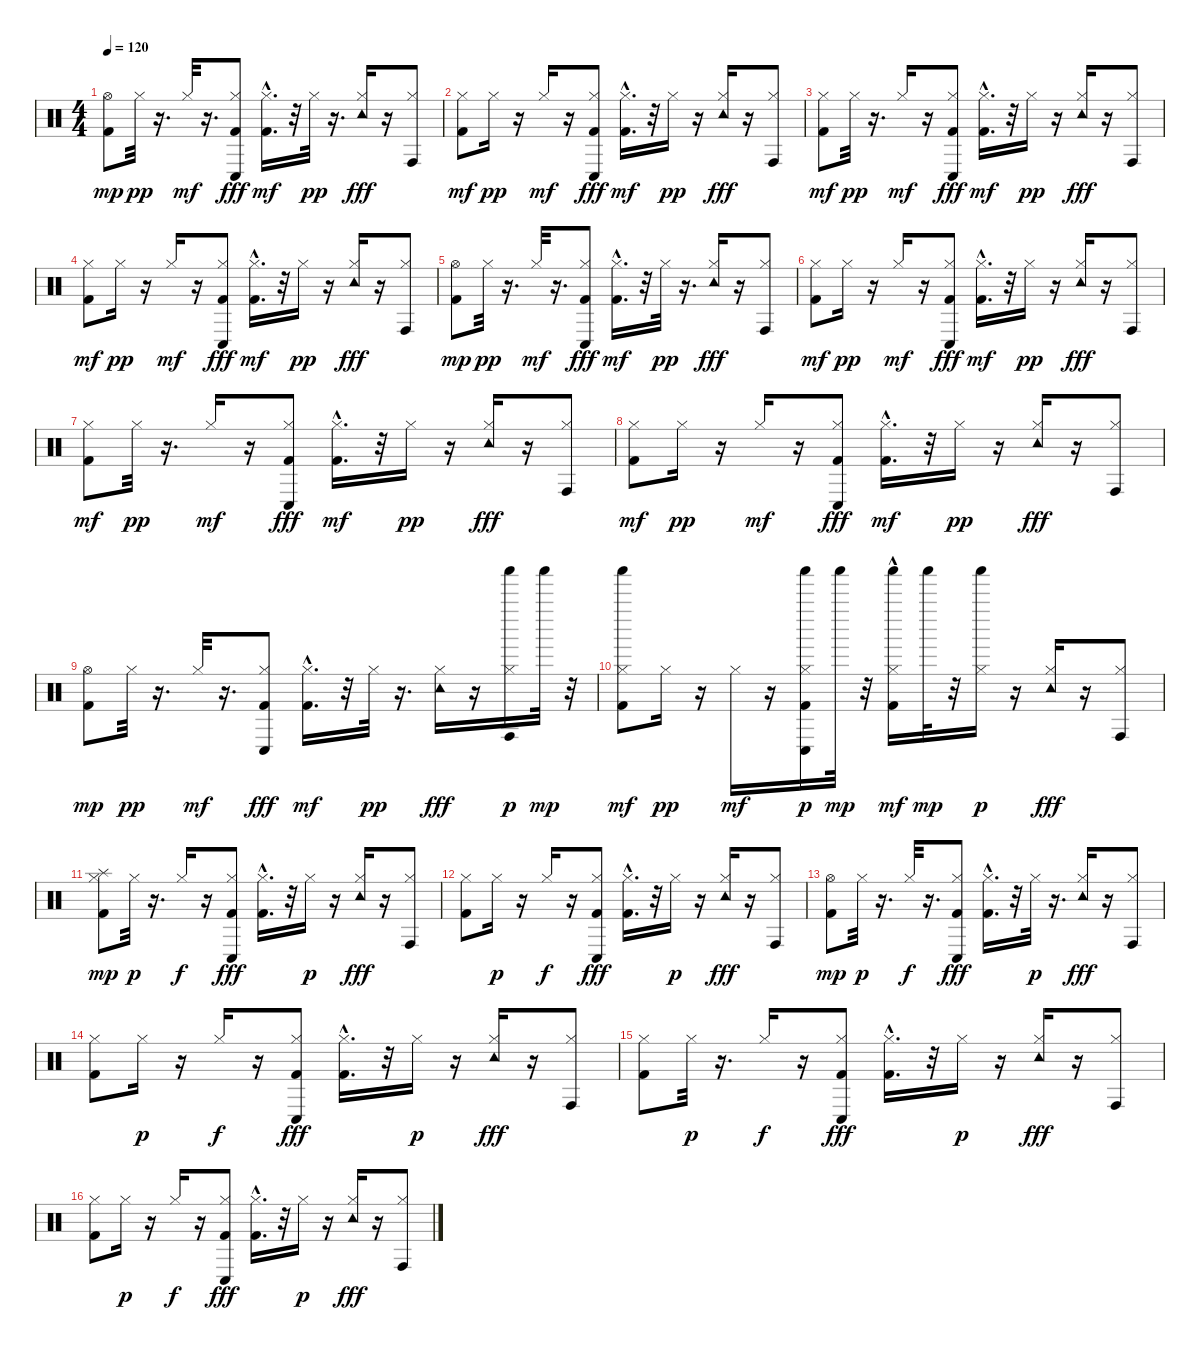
\track "" {instrument percussion}
\staff {score}
\articulation defaults
\ts (4 4)
\tempo 120
\clef neutral
\ks c
("Kick (hit) 2" "Hi-Hat (open)").8{dy mp} "Hi-Hat (closed)".32{dy pp} r.16{d} "Hi-Hat (closed)".32{dy mf} r.16{d} ("Kick (hit) 2" "Hi-Hat (closed)" "Conga low (hit)").8{dy fff} ("Kick (hit) 2"{hac} "Hi-Hat (closed)").16{d dy mf} r.32 "Hi-Hat (closed)".32{dy pp} r.16{d} ("Hi-Hat (closed)" "Tambourine (hit)").16{dy fff} r.16 ("Hi-Hat (closed)" "Conga high (hit)").8 |
("Kick (hit) 2" "Hi-Hat (closed)").8{dy mf} "Hi-Hat (closed)".16{dy pp} r.16 "Hi-Hat (closed)".16{dy mf} r.16 ("Kick (hit) 2" "Hi-Hat (closed)" "Conga low (hit)").8{dy fff} ("Kick (hit) 2"{hac} "Hi-Hat (closed)").16{d dy mf} r.32 "Hi-Hat (closed)".16{dy pp} r.16 ("Hi-Hat (closed)" "Tambourine (hit)").16{dy fff} r.16 ("Hi-Hat (closed)" "Conga high (hit)").8 |
("Kick (hit) 2" "Hi-Hat (closed)").8{dy mf} "Hi-Hat (closed)".32{dy pp} r.16{d} "Hi-Hat (closed)".16{dy mf} r.16 ("Kick (hit) 2" "Hi-Hat (closed)" "Conga low (hit)").8{dy fff} ("Kick (hit) 2"{hac} "Hi-Hat (closed)").16{d dy mf} r.32 "Hi-Hat (closed)".16{dy pp} r.16 ("Hi-Hat (closed)" "Tambourine (hit)").16{dy fff} r.16 ("Hi-Hat (closed)" "Conga high (hit)").8 |
("Kick (hit) 2" "Hi-Hat (closed)").8{dy mf} "Hi-Hat (closed)".16{dy pp} r.16 "Hi-Hat (closed)".16{dy mf} r.16 ("Kick (hit) 2" "Hi-Hat (closed)" "Conga low (hit)").8{dy fff} ("Kick (hit) 2"{hac} "Hi-Hat (closed)").16{d dy mf} r.32 "Hi-Hat (closed)".16{dy pp} r.16 ("Hi-Hat (closed)" "Tambourine (hit)").16{dy fff} r.16 ("Hi-Hat (closed)" "Conga high (hit)").8 |
("Kick (hit) 2" "Hi-Hat (open)").8{dy mp} "Hi-Hat (closed)".32{dy pp} r.16{d} "Hi-Hat (closed)".32{dy mf} r.16{d} ("Kick (hit) 2" "Hi-Hat (closed)" "Conga low (hit)").8{dy fff} ("Kick (hit) 2"{hac} "Hi-Hat (closed)").16{d dy mf} r.32 "Hi-Hat (closed)".32{dy pp} r.16{d} ("Hi-Hat (closed)" "Tambourine (hit)").16{dy fff} r.16 ("Hi-Hat (closed)" "Conga high (hit)").8 |
("Kick (hit) 2" "Hi-Hat (closed)").8{dy mf} "Hi-Hat (closed)".16{dy pp} r.16 "Hi-Hat (closed)".16{dy mf} r.16 ("Kick (hit) 2" "Hi-Hat (closed)" "Conga low (hit)").8{dy fff} ("Kick (hit) 2"{hac} "Hi-Hat (closed)").16{d dy mf} r.32 "Hi-Hat (closed)".16{dy pp} r.16 ("Hi-Hat (closed)" "Tambourine (hit)").16{dy fff} r.16 ("Hi-Hat (closed)" "Conga high (hit)").8 |
("Kick (hit) 2" "Hi-Hat (closed)").8{dy mf} "Hi-Hat (closed)".32{dy pp} r.16{d} "Hi-Hat (closed)".16{dy mf} r.16 ("Kick (hit) 2" "Hi-Hat (closed)" "Conga low (hit)").8{dy fff} ("Kick (hit) 2"{hac} "Hi-Hat (closed)").16{d dy mf} r.32 "Hi-Hat (closed)".16{dy pp} r.16 ("Hi-Hat (closed)" "Tambourine (hit)").16{dy fff} r.16 ("Hi-Hat (closed)" "Conga high (hit)").8 |
("Kick (hit) 2" "Hi-Hat (closed)").8{dy mf} "Hi-Hat (closed)".16{dy pp} r.16 "Hi-Hat (closed)".16{dy mf} r.16 ("Kick (hit) 2" "Hi-Hat (closed)" "Conga low (hit)").8{dy fff} ("Kick (hit) 2"{hac} "Hi-Hat (closed)").16{d dy mf} r.32 "Hi-Hat (closed)".16{dy pp} r.16 ("Hi-Hat (closed)" "Tambourine (hit)").16{dy fff} r.16 ("Hi-Hat (closed)" "Conga high (hit)").8 |
("Kick (hit) 2" "Hi-Hat (open)").8{dy mp} "Hi-Hat (closed)".32{dy pp} r.16{d} "Hi-Hat (closed)".32{dy mf} r.16{d} ("Kick (hit) 2" "Hi-Hat (closed)" "Conga low (hit)").8{dy fff} ("Kick (hit) 2"{hac} "Hi-Hat (closed)").16{d dy mf} r.32 "Hi-Hat (closed)".32{dy pp} r.16{d} ("Hi-Hat (closed)" "Tambourine (hit)").16{dy fff} r.16 ("Hi-Hat (closed)" "Conga high (hit)" "Shaker (hit)").16{dy p} "Shaker (hit)".32{dy mp} r.32 |
("Kick (hit) 2" "Hi-Hat (closed)" "Shaker (hit)").8{dy mf} "Hi-Hat (closed)".16{dy pp} r.16 "Hi-Hat (closed)".16{dy mf} r.16 ("Kick (hit) 2" "Hi-Hat (closed)" "Conga low (hit)" "Shaker (hit)").16{dy p} "Shaker (hit)".32{dy mp} r.32 ("Kick (hit) 2"{hac} "Hi-Hat (closed)" "Shaker (hit)").16{dy mf} "Shaker (hit)".32{dy mp} r.32 ("Hi-Hat (closed)" "Shaker (hit)").16{dy p} r.16 ("Hi-Hat (closed)" "Tambourine (hit)").16{dy fff} r.16 ("Hi-Hat (closed)" "Conga high (hit)").8 |
("Kick (hit) 2" "Hi-Hat (closed)" "Splash (hit)").8{dy mp} "Hi-Hat (closed)".32{dy p} r.16{d} "Hi-Hat (closed)".16{dy f} r.16 ("Kick (hit) 2" "Hi-Hat (closed)" "Conga low (hit)").8{dy fff} ("Kick (hit) 2"{hac} "Hi-Hat (closed)").16{d} r.32 "Hi-Hat (closed)".16{dy p} r.16 ("Hi-Hat (closed)" "Tambourine (hit)").16{dy fff} r.16 ("Hi-Hat (closed)" "Conga high (hit)").8 |
("Kick (hit) 2" "Hi-Hat (closed)").8 "Hi-Hat (closed)".16{dy p} r.16 "Hi-Hat (closed)".16{dy f} r.16 ("Kick (hit) 2" "Hi-Hat (closed)" "Conga low (hit)").8{dy fff} ("Kick (hit) 2"{hac} "Hi-Hat (closed)").16{d} r.32 "Hi-Hat (closed)".16{dy p} r.16 ("Hi-Hat (closed)" "Tambourine (hit)").16{dy fff} r.16 ("Hi-Hat (closed)" "Conga high (hit)").8 |
("Kick (hit) 2" "Hi-Hat (open)").8{dy mp} "Hi-Hat (closed)".32{dy p} r.16{d} "Hi-Hat (closed)".32{dy f} r.16{d} ("Kick (hit) 2" "Hi-Hat (closed)" "Conga low (hit)").8{dy fff} ("Kick (hit) 2"{hac} "Hi-Hat (closed)").16{d} r.32 "Hi-Hat (closed)".32{dy p} r.16{d} ("Hi-Hat (closed)" "Tambourine (hit)").16{dy fff} r.16 ("Hi-Hat (closed)" "Conga high (hit)").8 |
("Kick (hit) 2" "Hi-Hat (closed)").8 "Hi-Hat (closed)".16{dy p} r.16 "Hi-Hat (closed)".16{dy f} r.16 ("Kick (hit) 2" "Hi-Hat (closed)" "Conga low (hit)").8{dy fff} ("Kick (hit) 2"{hac} "Hi-Hat (closed)").16{d} r.32 "Hi-Hat (closed)".16{dy p} r.16 ("Hi-Hat (closed)" "Tambourine (hit)").16{dy fff} r.16 ("Hi-Hat (closed)" "Conga high (hit)").8 |
("Kick (hit) 2" "Hi-Hat (closed)").8 "Hi-Hat (closed)".32{dy p} r.16{d} "Hi-Hat (closed)".16{dy f} r.16 ("Kick (hit) 2" "Hi-Hat (closed)" "Conga low (hit)").8{dy fff} ("Kick (hit) 2"{hac} "Hi-Hat (closed)").16{d} r.32 "Hi-Hat (closed)".16{dy p} r.16 ("Hi-Hat (closed)" "Tambourine (hit)").16{dy fff} r.16 ("Hi-Hat (closed)" "Conga high (hit)").8 |
("Kick (hit) 2" "Hi-Hat (closed)").8 "Hi-Hat (closed)".16{dy p} r.16 "Hi-Hat (closed)".16{dy f} r.16 ("Kick (hit) 2" "Hi-Hat (closed)" "Conga low (hit)").8{dy fff} ("Kick (hit) 2"{hac} "Hi-Hat (closed)").16{d} r.32 "Hi-Hat (closed)".16{dy p} r.16 ("Hi-Hat (closed)" "Tambourine (hit)").16{dy fff} r.16 ("Hi-Hat (closed)" "Conga high (hit)").8
